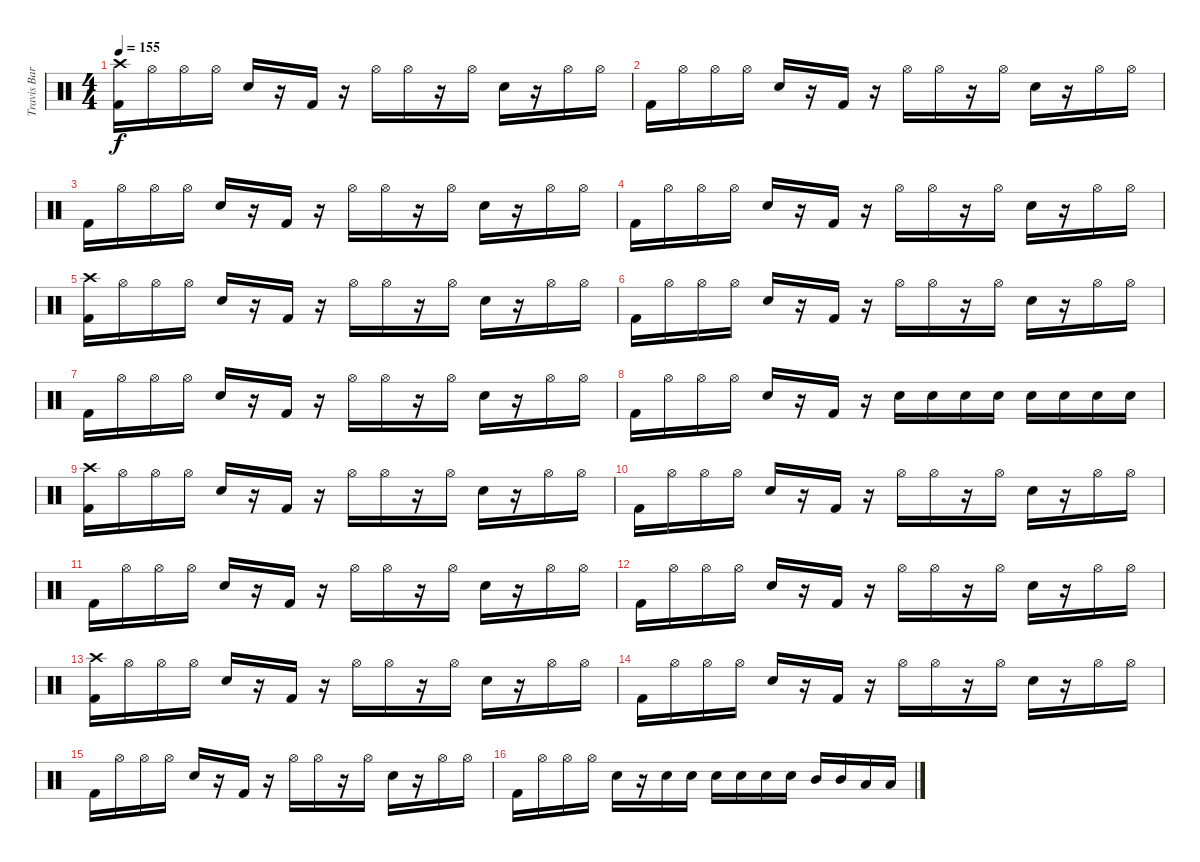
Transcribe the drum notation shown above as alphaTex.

\track ("Travis Barker Drums" "Travis Bar") {instrument percussion}
\staff {score}
\articulation defaults
\ts (4 4)
\tempo 155
\clef neutral
\ks c
("Crash high (hit)" "Kick (hit) 2").16{dy f} "Hi-Hat (open)".16 "Hi-Hat (open)".16 "Hi-Hat (open)".16 "Snare (hit) 2".16 r.16 "Kick (hit) 2".16 r.16 "Hi-Hat (open)".16 "Hi-Hat (open)".16 r.16 "Hi-Hat (open)".16 "Snare (hit) 2".16 r.16 "Hi-Hat (open)".16 "Hi-Hat (open)".16 |
"Kick (hit) 2".16 "Hi-Hat (open)".16 "Hi-Hat (open)".16 "Hi-Hat (open)".16 "Snare (hit) 2".16 r.16 "Kick (hit) 2".16 r.16 "Hi-Hat (open)".16 "Hi-Hat (open)".16 r.16 "Hi-Hat (open)".16 "Snare (hit) 2".16 r.16 "Hi-Hat (open)".16 "Hi-Hat (open)".16 |
"Kick (hit) 2".16 "Hi-Hat (open)".16 "Hi-Hat (open)".16 "Hi-Hat (open)".16 "Snare (hit) 2".16 r.16 "Kick (hit) 2".16 r.16 "Hi-Hat (open)".16 "Hi-Hat (open)".16 r.16 "Hi-Hat (open)".16 "Snare (hit) 2".16 r.16 "Hi-Hat (open)".16 "Hi-Hat (open)".16 |
"Kick (hit) 2".16 "Hi-Hat (open)".16 "Hi-Hat (open)".16 "Hi-Hat (open)".16 "Snare (hit) 2".16 r.16 "Kick (hit) 2".16 r.16 "Hi-Hat (open)".16 "Hi-Hat (open)".16 r.16 "Hi-Hat (open)".16 "Snare (hit) 2".16 r.16 "Hi-Hat (open)".16 "Hi-Hat (open)".16 |
("Crash high (hit)" "Kick (hit) 2").16 "Hi-Hat (open)".16 "Hi-Hat (open)".16 "Hi-Hat (open)".16 "Snare (hit) 2".16 r.16 "Kick (hit) 2".16 r.16 "Hi-Hat (open)".16 "Hi-Hat (open)".16 r.16 "Hi-Hat (open)".16 "Snare (hit) 2".16 r.16 "Hi-Hat (open)".16 "Hi-Hat (open)".16 |
"Kick (hit) 2".16 "Hi-Hat (open)".16 "Hi-Hat (open)".16 "Hi-Hat (open)".16 "Snare (hit) 2".16 r.16 "Kick (hit) 2".16 r.16 "Hi-Hat (open)".16 "Hi-Hat (open)".16 r.16 "Hi-Hat (open)".16 "Snare (hit) 2".16 r.16 "Hi-Hat (open)".16 "Hi-Hat (open)".16 |
"Kick (hit) 2".16 "Hi-Hat (open)".16 "Hi-Hat (open)".16 "Hi-Hat (open)".16 "Snare (hit) 2".16 r.16 "Kick (hit) 2".16 r.16 "Hi-Hat (open)".16 "Hi-Hat (open)".16 r.16 "Hi-Hat (open)".16 "Snare (hit) 2".16 r.16 "Hi-Hat (open)".16 "Hi-Hat (open)".16 |
"Kick (hit) 2".16 "Hi-Hat (open)".16 "Hi-Hat (open)".16 "Hi-Hat (open)".16 "Snare (hit) 2".16 r.16 "Kick (hit) 2".16 r.16 "Snare (hit) 2".16 "Snare (hit) 2".16 "Snare (hit) 2".16 "Snare (hit) 2".16 "Snare (hit) 2".16 "Snare (hit) 2".16 "Snare (hit) 2".16 "Snare (hit) 2".16 |
("Crash high (hit)" "Kick (hit) 2").16 "Hi-Hat (open)".16 "Hi-Hat (open)".16 "Hi-Hat (open)".16 "Snare (hit) 2".16 r.16 "Kick (hit) 2".16 r.16 "Hi-Hat (open)".16 "Hi-Hat (open)".16 r.16 "Hi-Hat (open)".16 "Snare (hit) 2".16 r.16 "Hi-Hat (open)".16 "Hi-Hat (open)".16 |
"Kick (hit) 2".16 "Hi-Hat (open)".16 "Hi-Hat (open)".16 "Hi-Hat (open)".16 "Snare (hit) 2".16 r.16 "Kick (hit) 2".16 r.16 "Hi-Hat (open)".16 "Hi-Hat (open)".16 r.16 "Hi-Hat (open)".16 "Snare (hit) 2".16 r.16 "Hi-Hat (open)".16 "Hi-Hat (open)".16 |
"Kick (hit) 2".16 "Hi-Hat (open)".16 "Hi-Hat (open)".16 "Hi-Hat (open)".16 "Snare (hit) 2".16 r.16 "Kick (hit) 2".16 r.16 "Hi-Hat (open)".16 "Hi-Hat (open)".16 r.16 "Hi-Hat (open)".16 "Snare (hit) 2".16 r.16 "Hi-Hat (open)".16 "Hi-Hat (open)".16 |
"Kick (hit) 2".16 "Hi-Hat (open)".16 "Hi-Hat (open)".16 "Hi-Hat (open)".16 "Snare (hit) 2".16 r.16 "Kick (hit) 2".16 r.16 "Hi-Hat (open)".16 "Hi-Hat (open)".16 r.16 "Hi-Hat (open)".16 "Snare (hit) 2".16 r.16 "Hi-Hat (open)".16 "Hi-Hat (open)".16 |
("Crash high (hit)" "Kick (hit) 2").16 "Hi-Hat (open)".16 "Hi-Hat (open)".16 "Hi-Hat (open)".16 "Snare (hit) 2".16 r.16 "Kick (hit) 2".16 r.16 "Hi-Hat (open)".16 "Hi-Hat (open)".16 r.16 "Hi-Hat (open)".16 "Snare (hit) 2".16 r.16 "Hi-Hat (open)".16 "Hi-Hat (open)".16 |
"Kick (hit) 2".16 "Hi-Hat (open)".16 "Hi-Hat (open)".16 "Hi-Hat (open)".16 "Snare (hit) 2".16 r.16 "Kick (hit) 2".16 r.16 "Hi-Hat (open)".16 "Hi-Hat (open)".16 r.16 "Hi-Hat (open)".16 "Snare (hit) 2".16 r.16 "Hi-Hat (open)".16 "Hi-Hat (open)".16 |
"Kick (hit) 2".16 "Hi-Hat (open)".16 "Hi-Hat (open)".16 "Hi-Hat (open)".16 "Snare (hit) 2".16 r.16 "Kick (hit) 2".16 r.16 "Hi-Hat (open)".16 "Hi-Hat (open)".16 r.16 "Hi-Hat (open)".16 "Snare (hit) 2".16 r.16 "Hi-Hat (open)".16 "Hi-Hat (open)".16 |
"Kick (hit) 2".16 "Hi-Hat (open)".16 "Hi-Hat (open)".16 "Hi-Hat (open)".16 "Snare (hit) 2".16 r.16 "Snare (hit) 2".16 "Snare (hit) 2".16 "Snare (hit) 2".16 "Snare (hit) 2".16 "Snare (hit) 2".16 "Snare (hit) 2".16 "Mid Tom (hit)".16 "Mid Tom (hit)".16 "Low Tom (hit)".16 "Low Tom (hit)".16
